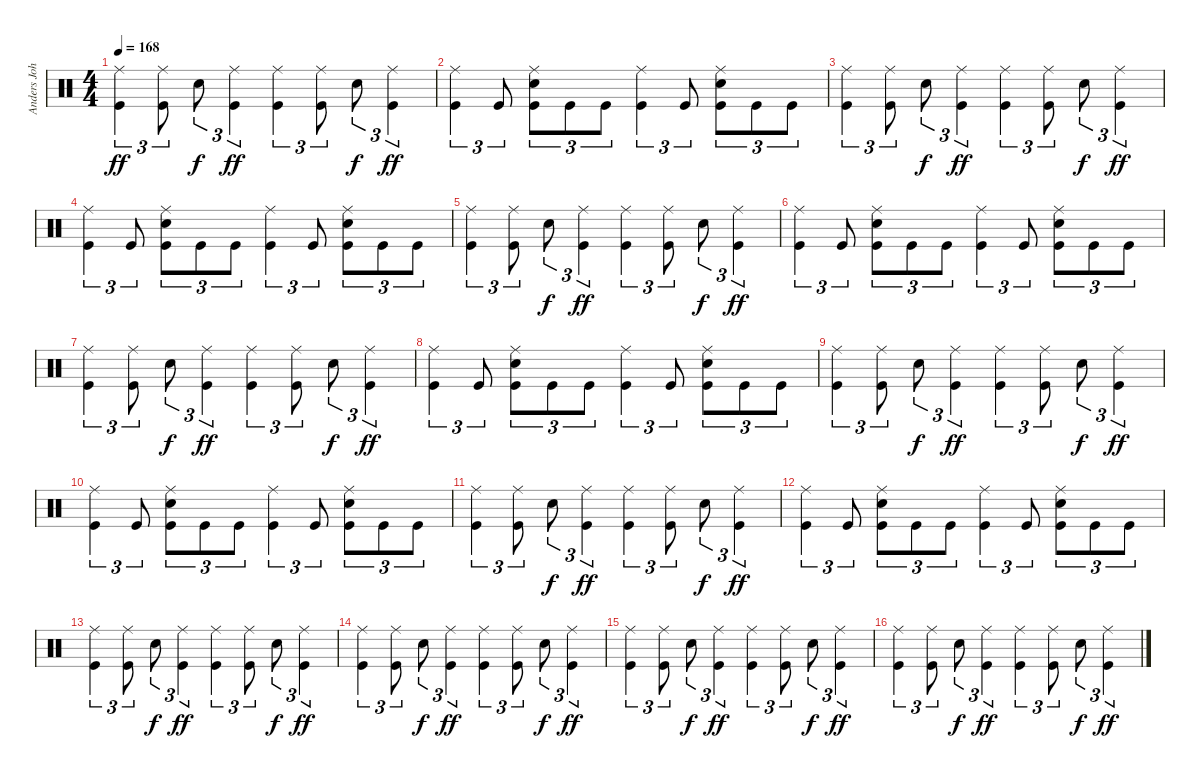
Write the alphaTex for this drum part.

\track ("Anders Johansson (Drums)" "Anders Joh") {instrument percussion}
\staff {score}
\articulation defaults
\ts (4 4)
\tempo 168
\clef neutral
\ks c
("Ride (middle)" "Kick (hit)").4{tu (3 2) dy ff} ("Ride (middle)" "Kick (hit)").8{tu (3 2)} "Electric Snare (hit)".8{tu (3 2) dy f} ("Ride (middle)" "Kick (hit)").4{tu (3 2) dy ff} ("Ride (middle)" "Kick (hit)").4{tu (3 2)} ("Ride (middle)" "Kick (hit)").8{tu (3 2)} "Electric Snare (hit)".8{tu (3 2) dy f} ("Ride (middle)" "Kick (hit)").4{tu (3 2) dy ff} |
("Ride (middle)" "Kick (hit)").4{tu (3 2)} "Kick (hit)".8{tu (3 2)} ("Ride (middle)" "Electric Snare (hit)" "Kick (hit)").8{tu (3 2)} "Kick (hit)".8{tu (3 2)} "Kick (hit)".8{tu (3 2)} ("Ride (middle)" "Kick (hit)").4{tu (3 2)} "Kick (hit)".8{tu (3 2)} ("Ride (middle)" "Electric Snare (hit)" "Kick (hit)").8{tu (3 2)} "Kick (hit)".8{tu (3 2)} "Kick (hit)".8{tu (3 2)} |
("Ride (middle)" "Kick (hit)").4{tu (3 2)} ("Ride (middle)" "Kick (hit)").8{tu (3 2)} "Electric Snare (hit)".8{tu (3 2) dy f} ("Ride (middle)" "Kick (hit)").4{tu (3 2) dy ff} ("Ride (middle)" "Kick (hit)").4{tu (3 2)} ("Ride (middle)" "Kick (hit)").8{tu (3 2)} "Electric Snare (hit)".8{tu (3 2) dy f} ("Ride (middle)" "Kick (hit)").4{tu (3 2) dy ff} |
("Ride (middle)" "Kick (hit)").4{tu (3 2)} "Kick (hit)".8{tu (3 2)} ("Ride (middle)" "Electric Snare (hit)" "Kick (hit)").8{tu (3 2)} "Kick (hit)".8{tu (3 2)} "Kick (hit)".8{tu (3 2)} ("Ride (middle)" "Kick (hit)").4{tu (3 2)} "Kick (hit)".8{tu (3 2)} ("Ride (middle)" "Electric Snare (hit)" "Kick (hit)").8{tu (3 2)} "Kick (hit)".8{tu (3 2)} "Kick (hit)".8{tu (3 2)} |
("Ride (middle)" "Kick (hit)").4{tu (3 2)} ("Ride (middle)" "Kick (hit)").8{tu (3 2)} "Electric Snare (hit)".8{tu (3 2) dy f} ("Ride (middle)" "Kick (hit)").4{tu (3 2) dy ff} ("Ride (middle)" "Kick (hit)").4{tu (3 2)} ("Ride (middle)" "Kick (hit)").8{tu (3 2)} "Electric Snare (hit)".8{tu (3 2) dy f} ("Ride (middle)" "Kick (hit)").4{tu (3 2) dy ff} |
("Ride (middle)" "Kick (hit)").4{tu (3 2)} "Kick (hit)".8{tu (3 2)} ("Ride (middle)" "Electric Snare (hit)" "Kick (hit)").8{tu (3 2)} "Kick (hit)".8{tu (3 2)} "Kick (hit)".8{tu (3 2)} ("Ride (middle)" "Kick (hit)").4{tu (3 2)} "Kick (hit)".8{tu (3 2)} ("Ride (middle)" "Electric Snare (hit)" "Kick (hit)").8{tu (3 2)} "Kick (hit)".8{tu (3 2)} "Kick (hit)".8{tu (3 2)} |
("Ride (middle)" "Kick (hit)").4{tu (3 2)} ("Ride (middle)" "Kick (hit)").8{tu (3 2)} "Electric Snare (hit)".8{tu (3 2) dy f} ("Ride (middle)" "Kick (hit)").4{tu (3 2) dy ff} ("Ride (middle)" "Kick (hit)").4{tu (3 2)} ("Ride (middle)" "Kick (hit)").8{tu (3 2)} "Electric Snare (hit)".8{tu (3 2) dy f} ("Ride (middle)" "Kick (hit)").4{tu (3 2) dy ff} |
("Ride (middle)" "Kick (hit)").4{tu (3 2)} "Kick (hit)".8{tu (3 2)} ("Ride (middle)" "Electric Snare (hit)" "Kick (hit)").8{tu (3 2)} "Kick (hit)".8{tu (3 2)} "Kick (hit)".8{tu (3 2)} ("Ride (middle)" "Kick (hit)").4{tu (3 2)} "Kick (hit)".8{tu (3 2)} ("Ride (middle)" "Electric Snare (hit)" "Kick (hit)").8{tu (3 2)} "Kick (hit)".8{tu (3 2)} "Kick (hit)".8{tu (3 2)} |
("Ride (middle)" "Kick (hit)").4{tu (3 2)} ("Ride (middle)" "Kick (hit)").8{tu (3 2)} "Electric Snare (hit)".8{tu (3 2) dy f} ("Ride (middle)" "Kick (hit)").4{tu (3 2) dy ff} ("Ride (middle)" "Kick (hit)").4{tu (3 2)} ("Ride (middle)" "Kick (hit)").8{tu (3 2)} "Electric Snare (hit)".8{tu (3 2) dy f} ("Ride (middle)" "Kick (hit)").4{tu (3 2) dy ff} |
("Ride (middle)" "Kick (hit)").4{tu (3 2)} "Kick (hit)".8{tu (3 2)} ("Ride (middle)" "Electric Snare (hit)" "Kick (hit)").8{tu (3 2)} "Kick (hit)".8{tu (3 2)} "Kick (hit)".8{tu (3 2)} ("Ride (middle)" "Kick (hit)").4{tu (3 2)} "Kick (hit)".8{tu (3 2)} ("Ride (middle)" "Electric Snare (hit)" "Kick (hit)").8{tu (3 2)} "Kick (hit)".8{tu (3 2)} "Kick (hit)".8{tu (3 2)} |
("Ride (middle)" "Kick (hit)").4{tu (3 2)} ("Ride (middle)" "Kick (hit)").8{tu (3 2)} "Electric Snare (hit)".8{tu (3 2) dy f} ("Ride (middle)" "Kick (hit)").4{tu (3 2) dy ff} ("Ride (middle)" "Kick (hit)").4{tu (3 2)} ("Ride (middle)" "Kick (hit)").8{tu (3 2)} "Electric Snare (hit)".8{tu (3 2) dy f} ("Ride (middle)" "Kick (hit)").4{tu (3 2) dy ff} |
("Ride (middle)" "Kick (hit)").4{tu (3 2)} "Kick (hit)".8{tu (3 2)} ("Ride (middle)" "Electric Snare (hit)" "Kick (hit)").8{tu (3 2)} "Kick (hit)".8{tu (3 2)} "Kick (hit)".8{tu (3 2)} ("Ride (middle)" "Kick (hit)").4{tu (3 2)} "Kick (hit)".8{tu (3 2)} ("Ride (middle)" "Electric Snare (hit)" "Kick (hit)").8{tu (3 2)} "Kick (hit)".8{tu (3 2)} "Kick (hit)".8{tu (3 2)} |
("Ride (middle)" "Kick (hit)").4{tu (3 2)} ("Ride (middle)" "Kick (hit)").8{tu (3 2)} "Electric Snare (hit)".8{tu (3 2) dy f} ("Ride (middle)" "Kick (hit)").4{tu (3 2) dy ff} ("Ride (middle)" "Kick (hit)").4{tu (3 2)} ("Ride (middle)" "Kick (hit)").8{tu (3 2)} "Electric Snare (hit)".8{tu (3 2) dy f} ("Ride (middle)" "Kick (hit)").4{tu (3 2) dy ff} |
("Ride (middle)" "Kick (hit)").4{tu (3 2)} ("Ride (middle)" "Kick (hit)").8{tu (3 2)} "Electric Snare (hit)".8{tu (3 2) dy f} ("Ride (middle)" "Kick (hit)").4{tu (3 2) dy ff} ("Ride (middle)" "Kick (hit)").4{tu (3 2)} ("Ride (middle)" "Kick (hit)").8{tu (3 2)} "Electric Snare (hit)".8{tu (3 2) dy f} ("Ride (middle)" "Kick (hit)").4{tu (3 2) dy ff} |
("Ride (middle)" "Kick (hit)").4{tu (3 2)} ("Ride (middle)" "Kick (hit)").8{tu (3 2)} "Electric Snare (hit)".8{tu (3 2) dy f} ("Ride (middle)" "Kick (hit)").4{tu (3 2) dy ff} ("Ride (middle)" "Kick (hit)").4{tu (3 2)} ("Ride (middle)" "Kick (hit)").8{tu (3 2)} "Electric Snare (hit)".8{tu (3 2) dy f} ("Ride (middle)" "Kick (hit)").4{tu (3 2) dy ff} |
("Ride (middle)" "Kick (hit)").4{tu (3 2)} ("Ride (middle)" "Kick (hit)").8{tu (3 2)} "Electric Snare (hit)".8{tu (3 2) dy f} ("Ride (middle)" "Kick (hit)").4{tu (3 2) dy ff} ("Ride (middle)" "Kick (hit)").4{tu (3 2)} ("Ride (middle)" "Kick (hit)").8{tu (3 2)} "Electric Snare (hit)".8{tu (3 2) dy f} ("Ride (middle)" "Kick (hit)").4{tu (3 2) dy ff}
